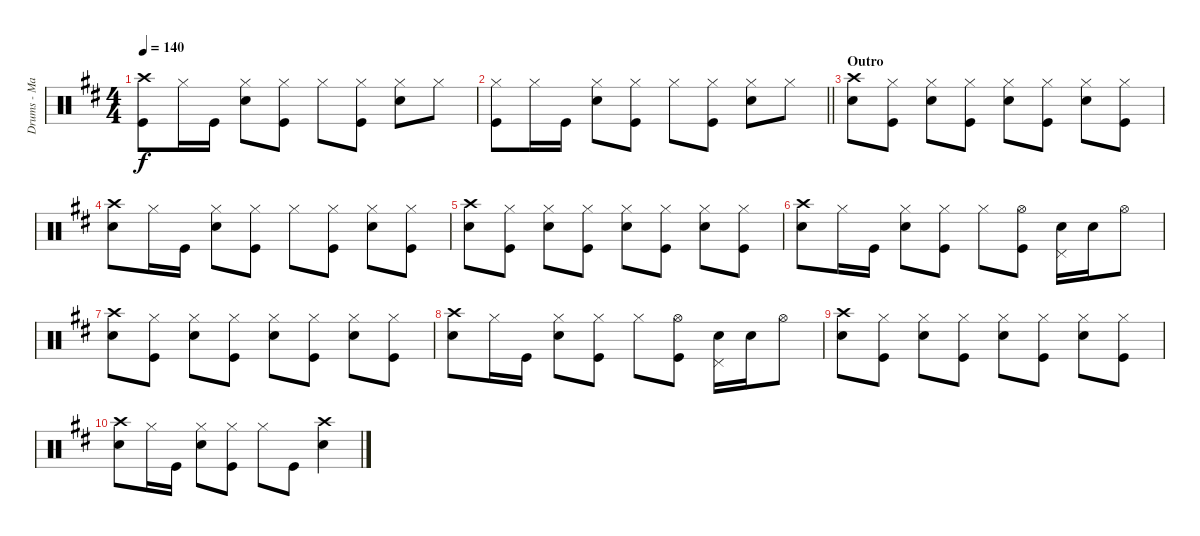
\track ("Drums - Matt Helders" "Drums - Ma") {instrument percussion}
\staff {score}
\articulation defaults
\ts (4 4)
\tempo 140
\clef neutral
\ks d
("Crash high (hit)" "Kick (hit)").8{dy f} "Hi-Hat (closed)".16 "Kick (hit)".16 ("Hi-Hat (closed)" "Snare (hit) 2").8 ("Hi-Hat (closed)" "Kick (hit)").8 "Hi-Hat (closed)".8 ("Hi-Hat (closed)" "Kick (hit)").8 ("Hi-Hat (closed)" "Snare (hit) 2").8 "Hi-Hat (closed)".8 |
\barLineRight lightlight
("Hi-Hat (closed)" "Kick (hit)").8 "Hi-Hat (closed)".16 "Kick (hit)".16 ("Hi-Hat (closed)" "Snare (hit) 2").8 ("Hi-Hat (closed)" "Kick (hit)").8 "Hi-Hat (closed)".8 ("Hi-Hat (closed)" "Kick (hit)").8 ("Hi-Hat (closed)" "Snare (hit) 2").8 "Hi-Hat (closed)".8 |
\section ("" "Outro")
("Crash high (hit)" "Snare (hit) 2").8 ("Hi-Hat (closed)" "Kick (hit)").8 ("Hi-Hat (closed)" "Snare (hit) 2").8 ("Hi-Hat (closed)" "Kick (hit)").8 ("Hi-Hat (closed)" "Snare (hit) 2").8 ("Hi-Hat (closed)" "Kick (hit)").8 ("Hi-Hat (closed)" "Snare (hit) 2").8 ("Hi-Hat (closed)" "Kick (hit)").8 |
("Crash high (hit)" "Snare (hit) 2").8 "Hi-Hat (closed)".16 "Kick (hit)".16 ("Hi-Hat (closed)" "Snare (hit) 2").8 ("Hi-Hat (closed)" "Kick (hit)").8 "Hi-Hat (closed)".8 ("Hi-Hat (closed)" "Kick (hit)").8 ("Hi-Hat (closed)" "Snare (hit) 2").8 ("Hi-Hat (closed)" "Kick (hit)").8 |
("Crash high (hit)" "Snare (hit) 2").8 ("Hi-Hat (closed)" "Kick (hit)").8 ("Hi-Hat (closed)" "Snare (hit) 2").8 ("Hi-Hat (closed)" "Kick (hit)").8 ("Hi-Hat (closed)" "Snare (hit) 2").8 ("Hi-Hat (closed)" "Kick (hit)").8 ("Hi-Hat (closed)" "Snare (hit) 2").8 ("Hi-Hat (closed)" "Kick (hit)").8 |
("Crash high (hit)" "Snare (hit) 2").8 "Hi-Hat (closed)".16 "Kick (hit)".16 ("Hi-Hat (closed)" "Snare (hit) 2").8 ("Hi-Hat (closed)" "Kick (hit)").8 "Hi-Hat (closed)".8 ("Hi-Hat (open)" "Kick (hit)").8 ("Pedal Hi-Hat (hit)" "Snare (hit) 2").16 "Snare (hit) 2".16 "Hi-Hat (open)".8 |
("Crash high (hit)" "Snare (hit) 2").8 ("Hi-Hat (closed)" "Kick (hit)").8 ("Hi-Hat (closed)" "Snare (hit) 2").8 ("Hi-Hat (closed)" "Kick (hit)").8 ("Hi-Hat (closed)" "Snare (hit) 2").8 ("Hi-Hat (closed)" "Kick (hit)").8 ("Hi-Hat (closed)" "Snare (hit) 2").8 ("Hi-Hat (closed)" "Kick (hit)").8 |
("Crash high (hit)" "Snare (hit) 2").8 "Hi-Hat (closed)".16 "Kick (hit)".16 ("Hi-Hat (closed)" "Snare (hit) 2").8 ("Hi-Hat (closed)" "Kick (hit)").8 "Hi-Hat (closed)".8 ("Hi-Hat (open)" "Kick (hit)").8 ("Pedal Hi-Hat (hit)" "Snare (hit) 2").16 "Snare (hit) 2".16 "Hi-Hat (open)".8 |
("Crash high (hit)" "Snare (hit) 2").8 ("Hi-Hat (closed)" "Kick (hit)").8 ("Hi-Hat (closed)" "Snare (hit) 2").8 ("Hi-Hat (closed)" "Kick (hit)").8 ("Hi-Hat (closed)" "Snare (hit) 2").8 ("Hi-Hat (closed)" "Kick (hit)").8 ("Hi-Hat (closed)" "Snare (hit) 2").8 ("Hi-Hat (closed)" "Kick (hit)").8 |
("Crash high (hit)" "Snare (hit) 2").8 "Hi-Hat (closed)".16 "Kick (hit)".16 ("Hi-Hat (closed)" "Snare (hit) 2").8 ("Hi-Hat (closed)" "Kick (hit)").8 "Hi-Hat (closed)".8 "Kick (hit)".8 ("Crash high (hit)" "Snare (hit) 2").4
